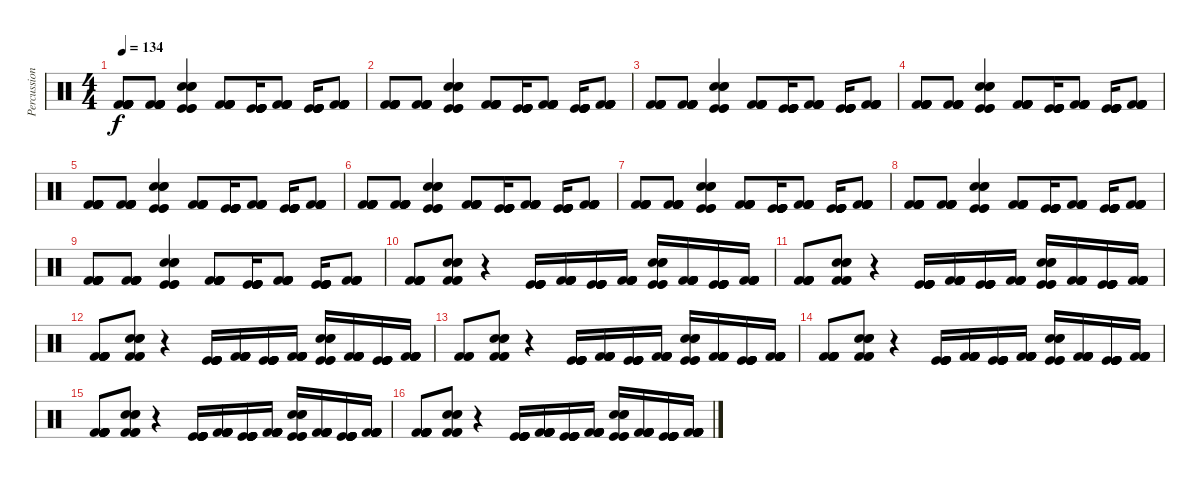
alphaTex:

\track ("Percussion" "Percussion") {instrument percussion}
\staff {score}
\articulation defaults
\ts (4 4)
\tempo 134
\clef neutral
\ks c
("Kick (hit) 2" "Kick (hit) 2" "Kick (hit) 2" "Kick (hit) 2" "Kick (hit) 2" "Kick (hit) 2").8{dy f} ("Kick (hit) 2" "Kick (hit) 2" "Kick (hit) 2" "Kick (hit) 2" "Kick (hit) 2" "Kick (hit) 2").8 ("Electric Snare (hit)" "Electric Snare (hit)" "Electric Snare (hit)" "Kick (hit)" "Kick (hit)" "Kick (hit)").4 ("Kick (hit) 2" "Kick (hit) 2" "Kick (hit) 2" "Kick (hit) 2" "Kick (hit) 2" "Kick (hit) 2").8 ("Kick (hit)" "Kick (hit)" "Kick (hit)" "Kick (hit)" "Kick (hit)" "Kick (hit)").16 ("Kick (hit) 2" "Kick (hit) 2" "Kick (hit) 2" "Kick (hit) 2" "Kick (hit) 2" "Kick (hit) 2").8 ("Kick (hit)" "Kick (hit)" "Kick (hit)" "Kick (hit)" "Kick (hit)" "Kick (hit)").16 ("Kick (hit) 2" "Kick (hit) 2" "Kick (hit) 2" "Kick (hit) 2" "Kick (hit) 2" "Kick (hit) 2").8 |
("Kick (hit) 2" "Kick (hit) 2" "Kick (hit) 2" "Kick (hit) 2" "Kick (hit) 2" "Kick (hit) 2").8 ("Kick (hit) 2" "Kick (hit) 2" "Kick (hit) 2" "Kick (hit) 2" "Kick (hit) 2" "Kick (hit) 2").8 ("Electric Snare (hit)" "Electric Snare (hit)" "Electric Snare (hit)" "Kick (hit)" "Kick (hit)" "Kick (hit)").4 ("Kick (hit) 2" "Kick (hit) 2" "Kick (hit) 2" "Kick (hit) 2" "Kick (hit) 2" "Kick (hit) 2").8 ("Kick (hit)" "Kick (hit)" "Kick (hit)" "Kick (hit)" "Kick (hit)" "Kick (hit)").16 ("Kick (hit) 2" "Kick (hit) 2" "Kick (hit) 2" "Kick (hit) 2" "Kick (hit) 2" "Kick (hit) 2").8 ("Kick (hit)" "Kick (hit)" "Kick (hit)" "Kick (hit)" "Kick (hit)" "Kick (hit)").16 ("Kick (hit) 2" "Kick (hit) 2" "Kick (hit) 2" "Kick (hit) 2" "Kick (hit) 2" "Kick (hit) 2").8 |
("Kick (hit) 2" "Kick (hit) 2" "Kick (hit) 2" "Kick (hit) 2" "Kick (hit) 2" "Kick (hit) 2").8 ("Kick (hit) 2" "Kick (hit) 2" "Kick (hit) 2" "Kick (hit) 2" "Kick (hit) 2" "Kick (hit) 2").8 ("Electric Snare (hit)" "Electric Snare (hit)" "Electric Snare (hit)" "Kick (hit)" "Kick (hit)" "Kick (hit)").4 ("Kick (hit) 2" "Kick (hit) 2" "Kick (hit) 2" "Kick (hit) 2" "Kick (hit) 2" "Kick (hit) 2").8 ("Kick (hit)" "Kick (hit)" "Kick (hit)" "Kick (hit)" "Kick (hit)" "Kick (hit)").16 ("Kick (hit) 2" "Kick (hit) 2" "Kick (hit) 2" "Kick (hit) 2" "Kick (hit) 2" "Kick (hit) 2").8 ("Kick (hit)" "Kick (hit)" "Kick (hit)" "Kick (hit)" "Kick (hit)" "Kick (hit)").16 ("Kick (hit) 2" "Kick (hit) 2" "Kick (hit) 2" "Kick (hit) 2" "Kick (hit) 2" "Kick (hit) 2").8 |
("Kick (hit) 2" "Kick (hit) 2" "Kick (hit) 2" "Kick (hit) 2" "Kick (hit) 2" "Kick (hit) 2").8 ("Kick (hit) 2" "Kick (hit) 2" "Kick (hit) 2" "Kick (hit) 2" "Kick (hit) 2" "Kick (hit) 2").8 ("Electric Snare (hit)" "Electric Snare (hit)" "Electric Snare (hit)" "Kick (hit)" "Kick (hit)" "Kick (hit)").4 ("Kick (hit) 2" "Kick (hit) 2" "Kick (hit) 2" "Kick (hit) 2" "Kick (hit) 2" "Kick (hit) 2").8 ("Kick (hit)" "Kick (hit)" "Kick (hit)" "Kick (hit)" "Kick (hit)" "Kick (hit)").16 ("Kick (hit) 2" "Kick (hit) 2" "Kick (hit) 2" "Kick (hit) 2" "Kick (hit) 2" "Kick (hit) 2").8 ("Kick (hit)" "Kick (hit)" "Kick (hit)" "Kick (hit)" "Kick (hit)" "Kick (hit)").16 ("Kick (hit) 2" "Kick (hit) 2" "Kick (hit) 2" "Kick (hit) 2" "Kick (hit) 2" "Kick (hit) 2").8 |
("Kick (hit) 2" "Kick (hit) 2" "Kick (hit) 2" "Kick (hit) 2" "Kick (hit) 2" "Kick (hit) 2").8 ("Kick (hit) 2" "Kick (hit) 2" "Kick (hit) 2" "Kick (hit) 2" "Kick (hit) 2" "Kick (hit) 2").8 ("Electric Snare (hit)" "Electric Snare (hit)" "Electric Snare (hit)" "Kick (hit)" "Kick (hit)" "Kick (hit)").4 ("Kick (hit) 2" "Kick (hit) 2" "Kick (hit) 2" "Kick (hit) 2" "Kick (hit) 2" "Kick (hit) 2").8 ("Kick (hit)" "Kick (hit)" "Kick (hit)" "Kick (hit)" "Kick (hit)" "Kick (hit)").16 ("Kick (hit) 2" "Kick (hit) 2" "Kick (hit) 2" "Kick (hit) 2" "Kick (hit) 2" "Kick (hit) 2").8 ("Kick (hit)" "Kick (hit)" "Kick (hit)" "Kick (hit)" "Kick (hit)" "Kick (hit)").16 ("Kick (hit) 2" "Kick (hit) 2" "Kick (hit) 2" "Kick (hit) 2" "Kick (hit) 2" "Kick (hit) 2").8 |
("Kick (hit) 2" "Kick (hit) 2" "Kick (hit) 2" "Kick (hit) 2" "Kick (hit) 2" "Kick (hit) 2").8 ("Kick (hit) 2" "Kick (hit) 2" "Kick (hit) 2" "Kick (hit) 2" "Kick (hit) 2" "Kick (hit) 2").8 ("Electric Snare (hit)" "Electric Snare (hit)" "Electric Snare (hit)" "Kick (hit)" "Kick (hit)" "Kick (hit)").4 ("Kick (hit) 2" "Kick (hit) 2" "Kick (hit) 2" "Kick (hit) 2" "Kick (hit) 2" "Kick (hit) 2").8 ("Kick (hit)" "Kick (hit)" "Kick (hit)" "Kick (hit)" "Kick (hit)" "Kick (hit)").16 ("Kick (hit) 2" "Kick (hit) 2" "Kick (hit) 2" "Kick (hit) 2" "Kick (hit) 2" "Kick (hit) 2").8 ("Kick (hit)" "Kick (hit)" "Kick (hit)" "Kick (hit)" "Kick (hit)" "Kick (hit)").16 ("Kick (hit) 2" "Kick (hit) 2" "Kick (hit) 2" "Kick (hit) 2" "Kick (hit) 2" "Kick (hit) 2").8 |
("Kick (hit) 2" "Kick (hit) 2" "Kick (hit) 2" "Kick (hit) 2" "Kick (hit) 2" "Kick (hit) 2").8 ("Kick (hit) 2" "Kick (hit) 2" "Kick (hit) 2" "Kick (hit) 2" "Kick (hit) 2" "Kick (hit) 2").8 ("Electric Snare (hit)" "Electric Snare (hit)" "Electric Snare (hit)" "Kick (hit)" "Kick (hit)" "Kick (hit)").4 ("Kick (hit) 2" "Kick (hit) 2" "Kick (hit) 2" "Kick (hit) 2" "Kick (hit) 2" "Kick (hit) 2").8 ("Kick (hit)" "Kick (hit)" "Kick (hit)" "Kick (hit)" "Kick (hit)" "Kick (hit)").16 ("Kick (hit) 2" "Kick (hit) 2" "Kick (hit) 2" "Kick (hit) 2" "Kick (hit) 2" "Kick (hit) 2").8 ("Kick (hit)" "Kick (hit)" "Kick (hit)" "Kick (hit)" "Kick (hit)" "Kick (hit)").16 ("Kick (hit) 2" "Kick (hit) 2" "Kick (hit) 2" "Kick (hit) 2" "Kick (hit) 2" "Kick (hit) 2").8 |
("Kick (hit) 2" "Kick (hit) 2" "Kick (hit) 2" "Kick (hit) 2" "Kick (hit) 2" "Kick (hit) 2").8 ("Kick (hit) 2" "Kick (hit) 2" "Kick (hit) 2" "Kick (hit) 2" "Kick (hit) 2" "Kick (hit) 2").8 ("Electric Snare (hit)" "Electric Snare (hit)" "Electric Snare (hit)" "Kick (hit)" "Kick (hit)" "Kick (hit)").4 ("Kick (hit) 2" "Kick (hit) 2" "Kick (hit) 2" "Kick (hit) 2" "Kick (hit) 2" "Kick (hit) 2").8 ("Kick (hit)" "Kick (hit)" "Kick (hit)" "Kick (hit)" "Kick (hit)" "Kick (hit)").16 ("Kick (hit) 2" "Kick (hit) 2" "Kick (hit) 2" "Kick (hit) 2" "Kick (hit) 2" "Kick (hit) 2").8 ("Kick (hit)" "Kick (hit)" "Kick (hit)" "Kick (hit)" "Kick (hit)" "Kick (hit)").16 ("Kick (hit) 2" "Kick (hit) 2" "Kick (hit) 2" "Kick (hit) 2" "Kick (hit) 2" "Kick (hit) 2").8 |
("Kick (hit) 2" "Kick (hit) 2" "Kick (hit) 2" "Kick (hit) 2" "Kick (hit) 2" "Kick (hit) 2").8 ("Kick (hit) 2" "Kick (hit) 2" "Kick (hit) 2" "Kick (hit) 2" "Kick (hit) 2" "Kick (hit) 2").8 ("Electric Snare (hit)" "Electric Snare (hit)" "Electric Snare (hit)" "Kick (hit)" "Kick (hit)" "Kick (hit)").4 ("Kick (hit) 2" "Kick (hit) 2" "Kick (hit) 2" "Kick (hit) 2" "Kick (hit) 2" "Kick (hit) 2").8 ("Kick (hit)" "Kick (hit)" "Kick (hit)" "Kick (hit)" "Kick (hit)" "Kick (hit)").16 ("Kick (hit) 2" "Kick (hit) 2" "Kick (hit) 2" "Kick (hit) 2" "Kick (hit) 2" "Kick (hit) 2").8 ("Kick (hit)" "Kick (hit)" "Kick (hit)" "Kick (hit)" "Kick (hit)" "Kick (hit)").16 ("Kick (hit) 2" "Kick (hit) 2" "Kick (hit) 2" "Kick (hit) 2" "Kick (hit) 2" "Kick (hit) 2").8 |
("Kick (hit) 2" "Kick (hit) 2" "Kick (hit) 2" "Kick (hit) 2" "Kick (hit) 2" "Kick (hit) 2").8 ("Electric Snare (hit)" "Electric Snare (hit)" "Electric Snare (hit)" "Kick (hit) 2" "Kick (hit) 2" "Kick (hit) 2").8 r.4 ("Kick (hit)" "Kick (hit)" "Kick (hit)" "Kick (hit)" "Kick (hit)" "Kick (hit)").16 ("Kick (hit) 2" "Kick (hit) 2" "Kick (hit) 2" "Kick (hit) 2" "Kick (hit) 2" "Kick (hit) 2").16 ("Kick (hit)" "Kick (hit)" "Kick (hit)" "Kick (hit)" "Kick (hit)" "Kick (hit)").16 ("Kick (hit) 2" "Kick (hit) 2" "Kick (hit) 2" "Kick (hit) 2" "Kick (hit) 2" "Kick (hit) 2").16 ("Electric Snare (hit)" "Electric Snare (hit)" "Electric Snare (hit)" "Kick (hit)" "Kick (hit)" "Kick (hit)").16 ("Kick (hit) 2" "Kick (hit) 2" "Kick (hit) 2" "Kick (hit) 2" "Kick (hit) 2" "Kick (hit) 2").16 ("Kick (hit)" "Kick (hit)" "Kick (hit)" "Kick (hit)" "Kick (hit)" "Kick (hit)").16 ("Kick (hit) 2" "Kick (hit) 2" "Kick (hit) 2" "Kick (hit) 2" "Kick (hit) 2" "Kick (hit) 2").16 |
("Kick (hit) 2" "Kick (hit) 2" "Kick (hit) 2" "Kick (hit) 2" "Kick (hit) 2" "Kick (hit) 2").8 ("Electric Snare (hit)" "Electric Snare (hit)" "Electric Snare (hit)" "Kick (hit) 2" "Kick (hit) 2" "Kick (hit) 2").8 r.4 ("Kick (hit)" "Kick (hit)" "Kick (hit)" "Kick (hit)" "Kick (hit)" "Kick (hit)").16 ("Kick (hit) 2" "Kick (hit) 2" "Kick (hit) 2" "Kick (hit) 2" "Kick (hit) 2" "Kick (hit) 2").16 ("Kick (hit)" "Kick (hit)" "Kick (hit)" "Kick (hit)" "Kick (hit)" "Kick (hit)").16 ("Kick (hit) 2" "Kick (hit) 2" "Kick (hit) 2" "Kick (hit) 2" "Kick (hit) 2" "Kick (hit) 2").16 ("Electric Snare (hit)" "Electric Snare (hit)" "Electric Snare (hit)" "Kick (hit)" "Kick (hit)" "Kick (hit)").16 ("Kick (hit) 2" "Kick (hit) 2" "Kick (hit) 2" "Kick (hit) 2" "Kick (hit) 2" "Kick (hit) 2").16 ("Kick (hit)" "Kick (hit)" "Kick (hit)" "Kick (hit)" "Kick (hit)" "Kick (hit)").16 ("Kick (hit) 2" "Kick (hit) 2" "Kick (hit) 2" "Kick (hit) 2" "Kick (hit) 2" "Kick (hit) 2").16 |
("Kick (hit) 2" "Kick (hit) 2" "Kick (hit) 2" "Kick (hit) 2" "Kick (hit) 2" "Kick (hit) 2").8 ("Electric Snare (hit)" "Electric Snare (hit)" "Electric Snare (hit)" "Kick (hit) 2" "Kick (hit) 2" "Kick (hit) 2").8 r.4 ("Kick (hit)" "Kick (hit)" "Kick (hit)" "Kick (hit)" "Kick (hit)" "Kick (hit)").16 ("Kick (hit) 2" "Kick (hit) 2" "Kick (hit) 2" "Kick (hit) 2" "Kick (hit) 2" "Kick (hit) 2").16 ("Kick (hit)" "Kick (hit)" "Kick (hit)" "Kick (hit)" "Kick (hit)" "Kick (hit)").16 ("Kick (hit) 2" "Kick (hit) 2" "Kick (hit) 2" "Kick (hit) 2" "Kick (hit) 2" "Kick (hit) 2").16 ("Electric Snare (hit)" "Electric Snare (hit)" "Electric Snare (hit)" "Kick (hit)" "Kick (hit)" "Kick (hit)").16 ("Kick (hit) 2" "Kick (hit) 2" "Kick (hit) 2" "Kick (hit) 2" "Kick (hit) 2" "Kick (hit) 2").16 ("Kick (hit)" "Kick (hit)" "Kick (hit)" "Kick (hit)" "Kick (hit)" "Kick (hit)").16 ("Kick (hit) 2" "Kick (hit) 2" "Kick (hit) 2" "Kick (hit) 2" "Kick (hit) 2" "Kick (hit) 2").16 |
("Kick (hit) 2" "Kick (hit) 2" "Kick (hit) 2").8 ("Electric Snare (hit)" "Electric Snare (hit)" "Electric Snare (hit)" "Kick (hit) 2" "Kick (hit) 2" "Kick (hit) 2").8 r.4 ("Kick (hit)" "Kick (hit)" "Kick (hit)" "Kick (hit)" "Kick (hit)" "Kick (hit)").16 ("Kick (hit) 2" "Kick (hit) 2" "Kick (hit) 2" "Kick (hit) 2" "Kick (hit) 2" "Kick (hit) 2").16 ("Kick (hit)" "Kick (hit)" "Kick (hit)" "Kick (hit)" "Kick (hit)" "Kick (hit)").16 ("Kick (hit) 2" "Kick (hit) 2" "Kick (hit) 2" "Kick (hit) 2" "Kick (hit) 2" "Kick (hit) 2").16 ("Electric Snare (hit)" "Electric Snare (hit)" "Electric Snare (hit)" "Kick (hit)" "Kick (hit)" "Kick (hit)").16 ("Kick (hit) 2" "Kick (hit) 2" "Kick (hit) 2" "Kick (hit) 2" "Kick (hit) 2" "Kick (hit) 2").16 ("Kick (hit)" "Kick (hit)" "Kick (hit)" "Kick (hit)" "Kick (hit)" "Kick (hit)").16 ("Kick (hit) 2" "Kick (hit) 2" "Kick (hit) 2" "Kick (hit) 2" "Kick (hit) 2" "Kick (hit) 2").16 |
("Kick (hit) 2" "Kick (hit) 2" "Kick (hit) 2" "Kick (hit) 2" "Kick (hit) 2" "Kick (hit) 2").8 ("Electric Snare (hit)" "Electric Snare (hit)" "Electric Snare (hit)" "Kick (hit) 2" "Kick (hit) 2" "Kick (hit) 2").8 r.4 ("Kick (hit)" "Kick (hit)" "Kick (hit)" "Kick (hit)" "Kick (hit)" "Kick (hit)").16 ("Kick (hit) 2" "Kick (hit) 2" "Kick (hit) 2" "Kick (hit) 2" "Kick (hit) 2" "Kick (hit) 2").16 ("Kick (hit)" "Kick (hit)" "Kick (hit)" "Kick (hit)" "Kick (hit)" "Kick (hit)").16 ("Kick (hit) 2" "Kick (hit) 2" "Kick (hit) 2" "Kick (hit) 2" "Kick (hit) 2" "Kick (hit) 2").16 ("Electric Snare (hit)" "Electric Snare (hit)" "Electric Snare (hit)" "Kick (hit)" "Kick (hit)" "Kick (hit)").16 ("Kick (hit) 2" "Kick (hit) 2" "Kick (hit) 2" "Kick (hit) 2" "Kick (hit) 2" "Kick (hit) 2").16 ("Kick (hit)" "Kick (hit)" "Kick (hit)" "Kick (hit)" "Kick (hit)" "Kick (hit)").16 ("Kick (hit) 2" "Kick (hit) 2" "Kick (hit) 2" "Kick (hit) 2" "Kick (hit) 2" "Kick (hit) 2").16 |
("Kick (hit) 2" "Kick (hit) 2" "Kick (hit) 2" "Kick (hit) 2" "Kick (hit) 2" "Kick (hit) 2").8 ("Electric Snare (hit)" "Electric Snare (hit)" "Electric Snare (hit)" "Kick (hit) 2" "Kick (hit) 2" "Kick (hit) 2").8 r.4 ("Kick (hit)" "Kick (hit)" "Kick (hit)" "Kick (hit)" "Kick (hit)" "Kick (hit)").16 ("Kick (hit) 2" "Kick (hit) 2" "Kick (hit) 2" "Kick (hit) 2" "Kick (hit) 2" "Kick (hit) 2").16 ("Kick (hit)" "Kick (hit)" "Kick (hit)" "Kick (hit)" "Kick (hit)" "Kick (hit)").16 ("Kick (hit) 2" "Kick (hit) 2" "Kick (hit) 2" "Kick (hit) 2" "Kick (hit) 2" "Kick (hit) 2").16 ("Electric Snare (hit)" "Electric Snare (hit)" "Electric Snare (hit)" "Kick (hit)" "Kick (hit)" "Kick (hit)").16 ("Kick (hit) 2" "Kick (hit) 2" "Kick (hit) 2" "Kick (hit) 2" "Kick (hit) 2" "Kick (hit) 2").16 ("Kick (hit)" "Kick (hit)" "Kick (hit)" "Kick (hit)" "Kick (hit)" "Kick (hit)").16 ("Kick (hit) 2" "Kick (hit) 2" "Kick (hit) 2" "Kick (hit) 2" "Kick (hit) 2" "Kick (hit) 2").16 |
("Kick (hit) 2" "Kick (hit) 2" "Kick (hit) 2" "Kick (hit) 2" "Kick (hit) 2" "Kick (hit) 2").8 ("Electric Snare (hit)" "Electric Snare (hit)" "Electric Snare (hit)" "Kick (hit) 2" "Kick (hit) 2" "Kick (hit) 2").8 r.4 ("Kick (hit)" "Kick (hit)" "Kick (hit)" "Kick (hit)" "Kick (hit)" "Kick (hit)").16 ("Kick (hit) 2" "Kick (hit) 2" "Kick (hit) 2" "Kick (hit) 2" "Kick (hit) 2" "Kick (hit) 2").16 ("Kick (hit)" "Kick (hit)" "Kick (hit)" "Kick (hit)" "Kick (hit)" "Kick (hit)").16 ("Kick (hit) 2" "Kick (hit) 2" "Kick (hit) 2" "Kick (hit) 2" "Kick (hit) 2" "Kick (hit) 2").16 ("Electric Snare (hit)" "Electric Snare (hit)" "Electric Snare (hit)" "Kick (hit)" "Kick (hit)" "Kick (hit)").16 ("Kick (hit) 2" "Kick (hit) 2" "Kick (hit) 2" "Kick (hit) 2" "Kick (hit) 2" "Kick (hit) 2").16 ("Kick (hit)" "Kick (hit)" "Kick (hit)" "Kick (hit)" "Kick (hit)" "Kick (hit)").16 ("Kick (hit) 2" "Kick (hit) 2" "Kick (hit) 2" "Kick (hit) 2" "Kick (hit) 2" "Kick (hit) 2").16
